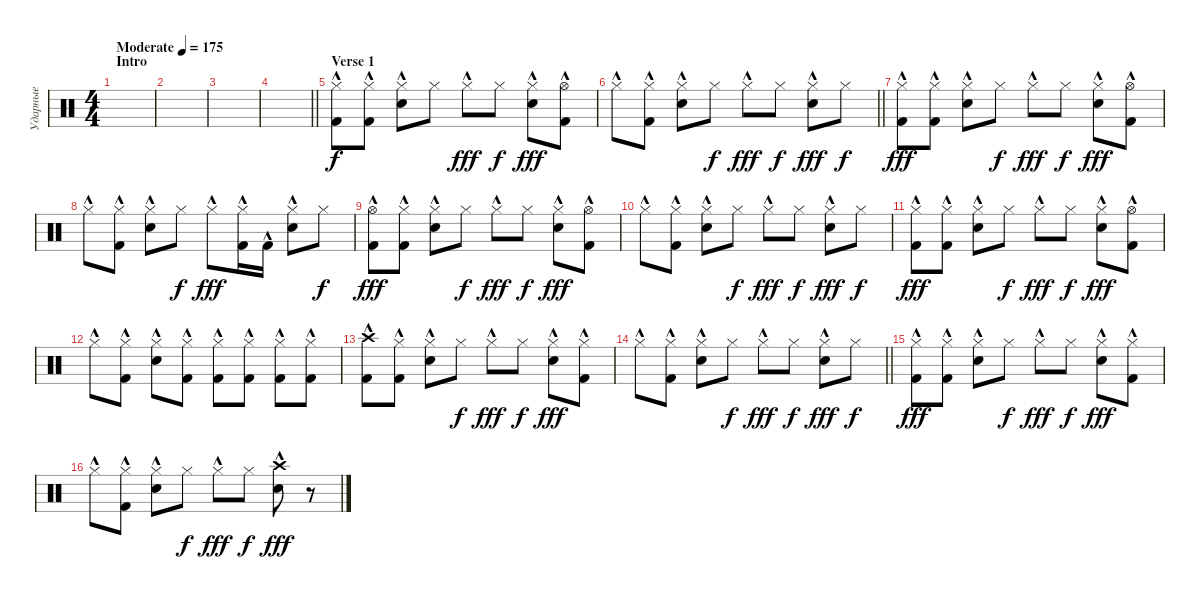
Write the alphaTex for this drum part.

\track ("Ударные" "Ударные") {instrument percussion}
\staff {score}
\articulation defaults
\ts (4 4)
\section ("" "Intro")
\tempo (175 "Moderate")
\clef neutral
\ks c
|
|
|
\barLineRight lightlight
|
\section ("" "Verse 1")
("Hi-Hat (closed)"{hac} "Kick (hit) 2"{hac}).8 ("Hi-Hat (closed)" "Kick (hit) 2"{hac}).8 ("Hi-Hat (closed)"{hac} "Snare (hit) 2"{hac}).8 "Hi-Hat (closed)".8{dy f} "Hi-Hat (closed)"{hac}.8{dy fff} "Hi-Hat (closed)".8{dy f} ("Hi-Hat (closed)"{hac} "Snare (hit) 2"{hac}).8{dy fff} ("Hi-Hat (open)"{hac} "Kick (hit) 2"{hac}).8 |
\barLineRight lightlight "Hi-Hat (closed)"{hac}.8
("Hi-Hat (closed)" "Kick (hit) 2"{hac}).8 ("Hi-Hat (closed)"{hac} "Snare (hit) 2"{hac}).8 "Hi-Hat (closed)".8{dy f} "Hi-Hat (closed)"{hac}.8{dy fff} "Hi-Hat (closed)".8{dy f} ("Hi-Hat (closed)"{hac} "Snare (hit) 2"{hac}).8{dy fff} "Hi-Hat (closed)".8{dy f} |
("Hi-Hat (closed)"{hac} "Kick (hit) 2"{hac}).8{dy fff} ("Hi-Hat (closed)" "Kick (hit) 2"{hac}).8 ("Hi-Hat (closed)"{hac} "Snare (hit) 2"{hac}).8 "Hi-Hat (closed)".8{dy f} "Hi-Hat (closed)"{hac}.8{dy fff} "Hi-Hat (closed)".8{dy f} ("Hi-Hat (closed)"{hac} "Snare (hit) 2"{hac}).8{dy fff} ("Hi-Hat (open)"{hac} "Kick (hit) 2"{hac}).8 |
"Hi-Hat (closed)"{hac}.8 ("Hi-Hat (closed)" "Kick (hit) 2"{hac}).8 ("Hi-Hat (closed)"{hac} "Snare (hit) 2"{hac}).8 "Hi-Hat (closed)".8{dy f} "Hi-Hat (closed)"{hac}.8{dy fff} ("Hi-Hat (closed)" "Kick (hit) 2"{hac}).16 "Kick (hit) 2"{hac}.16 ("Hi-Hat (closed)"{hac} "Snare (hit) 2"{hac}).8 "Hi-Hat (closed)".8{dy f} |
("Hi-Hat (open)"{hac} "Kick (hit) 2"{hac}).8{dy fff} ("Hi-Hat (closed)" "Kick (hit) 2"{hac}).8 ("Hi-Hat (closed)"{hac} "Snare (hit) 2"{hac}).8 "Hi-Hat (closed)".8{dy f} "Hi-Hat (closed)"{hac}.8{dy fff} "Hi-Hat (closed)".8{dy f} ("Hi-Hat (closed)"{hac} "Snare (hit) 2"{hac}).8{dy fff} ("Hi-Hat (open)"{hac} "Kick (hit) 2"{hac}).8 |
"Hi-Hat (closed)"{hac}.8 ("Hi-Hat (closed)" "Kick (hit) 2"{hac}).8 ("Hi-Hat (closed)"{hac} "Snare (hit) 2"{hac}).8 "Hi-Hat (closed)".8{dy f} "Hi-Hat (closed)"{hac}.8{dy fff} "Hi-Hat (closed)".8{dy f} ("Hi-Hat (closed)"{hac} "Snare (hit) 2"{hac}).8{dy fff} "Hi-Hat (closed)".8{dy f} |
("Hi-Hat (closed)"{hac} "Kick (hit) 2"{hac}).8{dy fff} ("Hi-Hat (closed)" "Kick (hit) 2"{hac}).8 ("Hi-Hat (closed)"{hac} "Snare (hit) 2"{hac}).8 "Hi-Hat (closed)".8{dy f} "Hi-Hat (closed)"{hac}.8{dy fff} "Hi-Hat (closed)".8{dy f} ("Hi-Hat (closed)"{hac} "Snare (hit) 2"{hac}).8{dy fff} ("Hi-Hat (open)"{hac} "Kick (hit) 2"{hac}).8 |
"Hi-Hat (closed)"{hac}.8 ("Hi-Hat (closed)" "Kick (hit) 2"{hac}).8 ("Hi-Hat (closed)"{hac} "Snare (hit) 2"{hac}).8 ("Hi-Hat (closed)" "Kick (hit) 2"{hac}).8 ("Hi-Hat (closed)"{hac} "Kick (hit) 2"{hac}).8 ("Hi-Hat (closed)" "Kick (hit) 2"{hac}).8 ("Hi-Hat (closed)"{hac} "Kick (hit) 2"{hac}).8 ("Hi-Hat (closed)" "Kick (hit) 2"{hac}).8 |
("Crash high (hit)"{hac} "Kick (hit) 2"{hac}).8 ("Hi-Hat (closed)" "Kick (hit) 2"{hac}).8 ("Hi-Hat (closed)"{hac} "Snare (hit) 2"{hac}).8 "Hi-Hat (closed)".8{dy f} "Hi-Hat (closed)"{hac}.8{dy fff} "Hi-Hat (closed)".8{dy f} ("Hi-Hat (closed)"{hac} "Snare (hit) 2"{hac}).8{dy fff} ("Hi-Hat (closed)" "Kick (hit) 2"{hac}).8 |
\barLineRight lightlight "Hi-Hat (closed)"{hac}.8
("Hi-Hat (closed)" "Kick (hit) 2"{hac}).8 ("Hi-Hat (closed)"{hac} "Snare (hit) 2"{hac}).8 "Hi-Hat (closed)".8{dy f} "Hi-Hat (closed)"{hac}.8{dy fff} "Hi-Hat (closed)".8{dy f} ("Hi-Hat (closed)"{hac} "Snare (hit) 2"{hac}).8{dy fff} "Hi-Hat (closed)".8{dy f} |
("Hi-Hat (closed)"{hac} "Kick (hit) 2"{hac}).8{dy fff} ("Hi-Hat (closed)" "Kick (hit) 2"{hac}).8 ("Hi-Hat (closed)"{hac} "Snare (hit) 2"{hac}).8 "Hi-Hat (closed)".8{dy f} "Hi-Hat (closed)"{hac}.8{dy fff} "Hi-Hat (closed)".8{dy f} ("Hi-Hat (closed)"{hac} "Snare (hit) 2"{hac}).8{dy fff} ("Hi-Hat (closed)" "Kick (hit) 2"{hac}).8 |
"Hi-Hat (closed)"{hac}.8 ("Hi-Hat (closed)" "Kick (hit) 2"{hac}).8 ("Hi-Hat (closed)"{hac} "Snare (hit) 2"{hac}).8 "Hi-Hat (closed)".8{dy f} "Hi-Hat (closed)"{hac}.8{dy fff} "Hi-Hat (closed)".8{dy f} ("Crash high (hit)"{hac} "Snare (hit) 2"{hac}).8{dy fff} r.8
